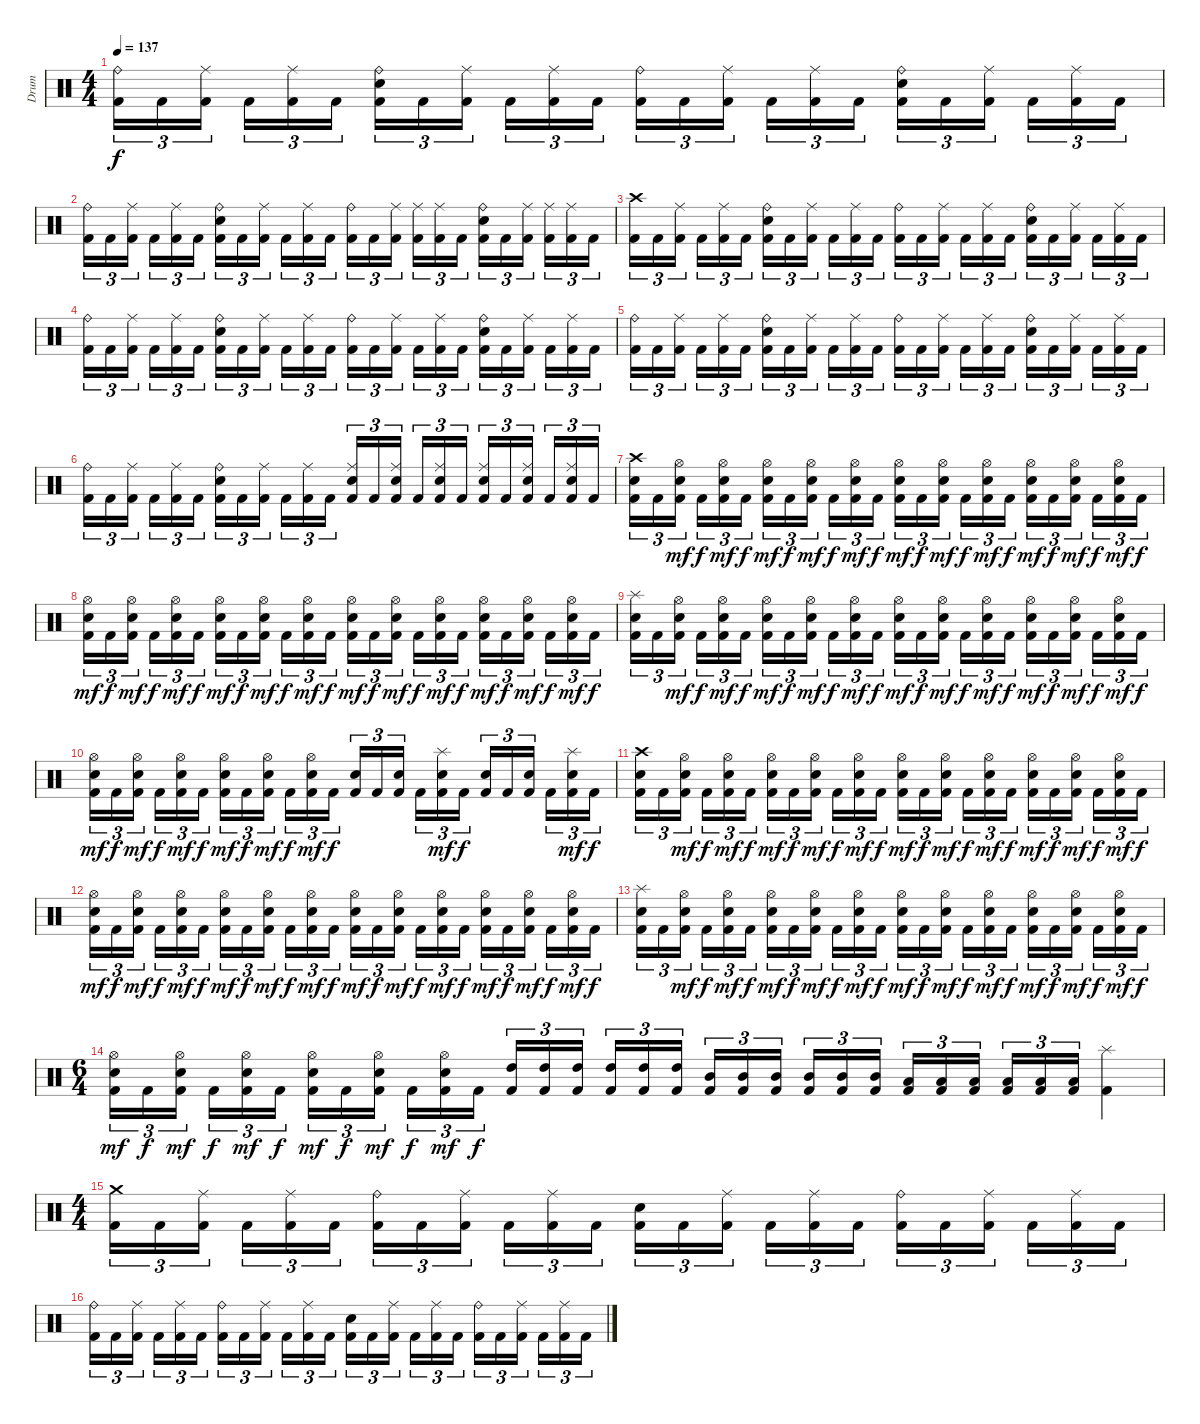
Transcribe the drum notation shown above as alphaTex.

\track ("Drum" "Drum") {instrument percussion}
\staff {score}
\articulation defaults
\ts (4 4)
\tempo 137
\clef neutral
\ks c
("Ride (bell)" "Kick (hit) 2").16{tu (3 2) dy f} "Kick (hit) 2".16{tu (3 2)} ("Ride (middle)" "Kick (hit) 2").16{tu (3 2) beam splitsecondary} "Kick (hit) 2".16{tu (3 2)} ("Ride (middle)" "Kick (hit) 2").16{tu (3 2)} "Kick (hit) 2".16{tu (3 2)} ("Ride (bell)" "Electric Snare (hit)" "Kick (hit) 2").16{tu (3 2)} "Kick (hit) 2".16{tu (3 2)} ("Ride (middle)" "Kick (hit) 2").16{tu (3 2) beam splitsecondary} "Kick (hit) 2".16{tu (3 2)} ("Ride (middle)" "Kick (hit) 2").16{tu (3 2)} "Kick (hit) 2".16{tu (3 2)} ("Ride (bell)" "Kick (hit) 2").16{tu (3 2)} "Kick (hit) 2".16{tu (3 2)} ("Ride (middle)" "Kick (hit) 2").16{tu (3 2) beam splitsecondary} "Kick (hit) 2".16{tu (3 2)} ("Ride (middle)" "Kick (hit) 2").16{tu (3 2)} "Kick (hit) 2".16{tu (3 2)} ("Ride (bell)" "Electric Snare (hit)" "Kick (hit) 2").16{tu (3 2)} "Kick (hit) 2".16{tu (3 2)} ("Ride (middle)" "Kick (hit) 2").16{tu (3 2) beam splitsecondary} "Kick (hit) 2".16{tu (3 2)} ("Ride (middle)" "Kick (hit) 2").16{tu (3 2)} "Kick (hit) 2".16{tu (3 2)} |
("Ride (bell)" "Kick (hit) 2").16{tu (3 2)} "Kick (hit) 2".16{tu (3 2)} ("Ride (middle)" "Kick (hit) 2").16{tu (3 2) beam splitsecondary} "Kick (hit) 2".16{tu (3 2)} ("Ride (middle)" "Kick (hit) 2").16{tu (3 2)} "Kick (hit) 2".16{tu (3 2)} ("Ride (bell)" "Electric Snare (hit)" "Kick (hit) 2").16{tu (3 2)} "Kick (hit) 2".16{tu (3 2)} ("Ride (middle)" "Kick (hit) 2").16{tu (3 2) beam splitsecondary} "Kick (hit) 2".16{tu (3 2)} ("Ride (middle)" "Kick (hit) 2").16{tu (3 2)} "Kick (hit) 2".16{tu (3 2)} ("Ride (bell)" "Kick (hit) 2").16{tu (3 2)} "Kick (hit) 2".16{tu (3 2)} ("Ride (middle)" "Kick (hit) 2").16{tu (3 2) beam splitsecondary} ("Ride (middle)" "Kick (hit) 2").16{tu (3 2)} ("Ride (middle)" "Kick (hit) 2").16{tu (3 2)} "Kick (hit) 2".16{tu (3 2)} ("Ride (bell)" "Electric Snare (hit)" "Kick (hit) 2").16{tu (3 2)} "Kick (hit) 2".16{tu (3 2)} ("Ride (middle)" "Kick (hit) 2").16{tu (3 2) beam splitsecondary} ("Ride (middle)" "Kick (hit) 2").16{tu (3 2)} ("Ride (middle)" "Kick (hit) 2").16{tu (3 2)} "Kick (hit) 2".16{tu (3 2)} |
("Crash high (hit)" "Kick (hit) 2").16{tu (3 2)} "Kick (hit) 2".16{tu (3 2)} ("Ride (middle)" "Kick (hit) 2").16{tu (3 2) beam splitsecondary} "Kick (hit) 2".16{tu (3 2)} ("Ride (middle)" "Kick (hit) 2").16{tu (3 2)} "Kick (hit) 2".16{tu (3 2)} ("Ride (bell)" "Electric Snare (hit)" "Kick (hit) 2").16{tu (3 2)} "Kick (hit) 2".16{tu (3 2)} ("Ride (middle)" "Kick (hit) 2").16{tu (3 2) beam splitsecondary} "Kick (hit) 2".16{tu (3 2)} ("Ride (middle)" "Kick (hit) 2").16{tu (3 2)} "Kick (hit) 2".16{tu (3 2)} ("Ride (bell)" "Kick (hit) 2").16{tu (3 2)} "Kick (hit) 2".16{tu (3 2)} ("Ride (middle)" "Kick (hit) 2").16{tu (3 2) beam splitsecondary} "Kick (hit) 2".16{tu (3 2)} ("Ride (middle)" "Kick (hit) 2").16{tu (3 2)} "Kick (hit) 2".16{tu (3 2)} ("Ride (bell)" "Electric Snare (hit)" "Kick (hit) 2").16{tu (3 2)} "Kick (hit) 2".16{tu (3 2)} ("Ride (middle)" "Kick (hit) 2").16{tu (3 2) beam splitsecondary} "Kick (hit) 2".16{tu (3 2)} ("Ride (middle)" "Kick (hit) 2").16{tu (3 2)} "Kick (hit) 2".16{tu (3 2)} |
("Ride (bell)" "Kick (hit) 2").16{tu (3 2)} "Kick (hit) 2".16{tu (3 2)} ("Ride (middle)" "Kick (hit) 2").16{tu (3 2) beam splitsecondary} "Kick (hit) 2".16{tu (3 2)} ("Ride (middle)" "Kick (hit) 2").16{tu (3 2)} "Kick (hit) 2".16{tu (3 2)} ("Ride (bell)" "Electric Snare (hit)" "Kick (hit) 2").16{tu (3 2)} "Kick (hit) 2".16{tu (3 2)} ("Ride (middle)" "Kick (hit) 2").16{tu (3 2) beam splitsecondary} "Kick (hit) 2".16{tu (3 2)} ("Ride (middle)" "Kick (hit) 2").16{tu (3 2)} "Kick (hit) 2".16{tu (3 2)} ("Ride (bell)" "Kick (hit) 2").16{tu (3 2)} "Kick (hit) 2".16{tu (3 2)} ("Ride (middle)" "Kick (hit) 2").16{tu (3 2) beam splitsecondary} "Kick (hit) 2".16{tu (3 2)} ("Ride (middle)" "Kick (hit) 2").16{tu (3 2)} "Kick (hit) 2".16{tu (3 2)} ("Ride (bell)" "Electric Snare (hit)" "Kick (hit) 2").16{tu (3 2)} "Kick (hit) 2".16{tu (3 2)} ("Ride (middle)" "Kick (hit) 2").16{tu (3 2) beam splitsecondary} "Kick (hit) 2".16{tu (3 2)} ("Ride (middle)" "Kick (hit) 2").16{tu (3 2)} "Kick (hit) 2".16{tu (3 2)} |
("Ride (bell)" "Kick (hit) 2").16{tu (3 2)} "Kick (hit) 2".16{tu (3 2)} ("Ride (middle)" "Kick (hit) 2").16{tu (3 2) beam splitsecondary} "Kick (hit) 2".16{tu (3 2)} ("Ride (middle)" "Kick (hit) 2").16{tu (3 2)} "Kick (hit) 2".16{tu (3 2)} ("Ride (bell)" "Electric Snare (hit)" "Kick (hit) 2").16{tu (3 2)} "Kick (hit) 2".16{tu (3 2)} ("Ride (middle)" "Kick (hit) 2").16{tu (3 2) beam splitsecondary} "Kick (hit) 2".16{tu (3 2)} ("Ride (middle)" "Kick (hit) 2").16{tu (3 2)} "Kick (hit) 2".16{tu (3 2)} ("Ride (bell)" "Kick (hit) 2").16{tu (3 2)} "Kick (hit) 2".16{tu (3 2)} ("Ride (middle)" "Kick (hit) 2").16{tu (3 2) beam splitsecondary} "Kick (hit) 2".16{tu (3 2)} ("Ride (middle)" "Kick (hit) 2").16{tu (3 2)} "Kick (hit) 2".16{tu (3 2)} ("Ride (bell)" "Electric Snare (hit)" "Kick (hit) 2").16{tu (3 2)} "Kick (hit) 2".16{tu (3 2)} ("Ride (middle)" "Kick (hit) 2").16{tu (3 2) beam splitsecondary} "Kick (hit) 2".16{tu (3 2)} ("Ride (middle)" "Kick (hit) 2").16{tu (3 2)} "Kick (hit) 2".16{tu (3 2)} |
("Ride (bell)" "Kick (hit) 2").16{tu (3 2)} "Kick (hit) 2".16{tu (3 2)} ("Ride (middle)" "Kick (hit) 2").16{tu (3 2) beam splitsecondary} "Kick (hit) 2".16{tu (3 2)} ("Ride (middle)" "Kick (hit) 2").16{tu (3 2)} "Kick (hit) 2".16{tu (3 2)} ("Ride (bell)" "Electric Snare (hit)" "Kick (hit) 2").16{tu (3 2)} "Kick (hit) 2".16{tu (3 2)} ("Ride (middle)" "Kick (hit) 2").16{tu (3 2) beam splitsecondary} "Kick (hit) 2".16{tu (3 2)} ("Ride (middle)" "Kick (hit) 2").16{tu (3 2)} "Kick (hit) 2".16{tu (3 2)} ("Ride (middle)" "Electric Snare (hit)" "Kick (hit) 2").16{tu (3 2)} "Kick (hit) 2".16{tu (3 2)} ("Ride (middle)" "Electric Snare (hit)" "Kick (hit) 2").16{tu (3 2) beam splitsecondary} "Kick (hit) 2".16{tu (3 2)} ("Ride (middle)" "Electric Snare (hit)" "Kick (hit) 2").16{tu (3 2)} "Kick (hit) 2".16{tu (3 2)} ("Ride (middle)" "Electric Snare (hit)" "Kick (hit) 2").16{tu (3 2)} "Kick (hit) 2".16{tu (3 2)} ("Ride (middle)" "Electric Snare (hit)" "Kick (hit) 2").16{tu (3 2) beam splitsecondary} "Kick (hit) 2".16{tu (3 2)} ("Ride (middle)" "Electric Snare (hit)" "Kick (hit) 2").16{tu (3 2)} "Kick (hit) 2".16{tu (3 2)} |
("Crash high (hit)" "Electric Snare (hit)" "Kick (hit) 2").16{tu (3 2)} "Kick (hit) 2".16{tu (3 2)} ("Hi-Hat (open)" "Electric Snare (hit)" "Kick (hit) 2").16{tu (3 2) dy mf beam splitsecondary} "Kick (hit) 2".16{tu (3 2) dy f} ("Hi-Hat (open)" "Electric Snare (hit)" "Kick (hit) 2").16{tu (3 2) dy mf} "Kick (hit) 2".16{tu (3 2) dy f} ("Hi-Hat (open)" "Electric Snare (hit)" "Kick (hit) 2").16{tu (3 2) dy mf} "Kick (hit) 2".16{tu (3 2) dy f} ("Hi-Hat (open)" "Electric Snare (hit)" "Kick (hit) 2").16{tu (3 2) dy mf beam splitsecondary} "Kick (hit) 2".16{tu (3 2) dy f} ("Hi-Hat (open)" "Electric Snare (hit)" "Kick (hit) 2").16{tu (3 2) dy mf} "Kick (hit) 2".16{tu (3 2) dy f} ("Hi-Hat (open)" "Electric Snare (hit)" "Kick (hit) 2").16{tu (3 2) dy mf} "Kick (hit) 2".16{tu (3 2) dy f} ("Hi-Hat (open)" "Electric Snare (hit)" "Kick (hit) 2").16{tu (3 2) dy mf beam splitsecondary} "Kick (hit) 2".16{tu (3 2) dy f} ("Hi-Hat (open)" "Electric Snare (hit)" "Kick (hit) 2").16{tu (3 2) dy mf} "Kick (hit) 2".16{tu (3 2) dy f} ("Hi-Hat (open)" "Electric Snare (hit)" "Kick (hit) 2").16{tu (3 2) dy mf} "Kick (hit) 2".16{tu (3 2) dy f} ("Hi-Hat (open)" "Electric Snare (hit)" "Kick (hit) 2").16{tu (3 2) dy mf beam splitsecondary} "Kick (hit) 2".16{tu (3 2) dy f} ("Hi-Hat (open)" "Electric Snare (hit)" "Kick (hit) 2").16{tu (3 2) dy mf} "Kick (hit) 2".16{tu (3 2) dy f} |
("Hi-Hat (open)" "Electric Snare (hit)" "Kick (hit) 2").16{tu (3 2) dy mf} "Kick (hit) 2".16{tu (3 2) dy f} ("Hi-Hat (open)" "Electric Snare (hit)" "Kick (hit) 2").16{tu (3 2) dy mf beam splitsecondary} "Kick (hit) 2".16{tu (3 2) dy f} ("Hi-Hat (open)" "Electric Snare (hit)" "Kick (hit) 2").16{tu (3 2) dy mf} "Kick (hit) 2".16{tu (3 2) dy f} ("Hi-Hat (open)" "Electric Snare (hit)" "Kick (hit) 2").16{tu (3 2) dy mf} "Kick (hit) 2".16{tu (3 2) dy f} ("Hi-Hat (open)" "Electric Snare (hit)" "Kick (hit) 2").16{tu (3 2) dy mf beam splitsecondary} "Kick (hit) 2".16{tu (3 2) dy f} ("Hi-Hat (open)" "Electric Snare (hit)" "Kick (hit) 2").16{tu (3 2) dy mf} "Kick (hit) 2".16{tu (3 2) dy f} ("Hi-Hat (open)" "Electric Snare (hit)" "Kick (hit) 2").16{tu (3 2) dy mf} "Kick (hit) 2".16{tu (3 2) dy f} ("Hi-Hat (open)" "Electric Snare (hit)" "Kick (hit) 2").16{tu (3 2) dy mf beam splitsecondary} "Kick (hit) 2".16{tu (3 2) dy f} ("Hi-Hat (open)" "Electric Snare (hit)" "Kick (hit) 2").16{tu (3 2) dy mf} "Kick (hit) 2".16{tu (3 2) dy f} ("Hi-Hat (open)" "Electric Snare (hit)" "Kick (hit) 2").16{tu (3 2) dy mf} "Kick (hit) 2".16{tu (3 2) dy f} ("Hi-Hat (open)" "Electric Snare (hit)" "Kick (hit) 2").16{tu (3 2) dy mf beam splitsecondary} "Kick (hit) 2".16{tu (3 2) dy f} ("Hi-Hat (open)" "Electric Snare (hit)" "Kick (hit) 2").16{tu (3 2) dy mf} "Kick (hit) 2".16{tu (3 2) dy f} |
("Splash (hit)" "Electric Snare (hit)" "Kick (hit) 2").16{tu (3 2)} "Kick (hit) 2".16{tu (3 2)} ("Hi-Hat (open)" "Electric Snare (hit)" "Kick (hit) 2").16{tu (3 2) dy mf beam splitsecondary} "Kick (hit) 2".16{tu (3 2) dy f} ("Hi-Hat (open)" "Electric Snare (hit)" "Kick (hit) 2").16{tu (3 2) dy mf} "Kick (hit) 2".16{tu (3 2) dy f} ("Hi-Hat (open)" "Electric Snare (hit)" "Kick (hit) 2").16{tu (3 2) dy mf} "Kick (hit) 2".16{tu (3 2) dy f} ("Hi-Hat (open)" "Electric Snare (hit)" "Kick (hit) 2").16{tu (3 2) dy mf beam splitsecondary} "Kick (hit) 2".16{tu (3 2) dy f} ("Hi-Hat (open)" "Electric Snare (hit)" "Kick (hit) 2").16{tu (3 2) dy mf} "Kick (hit) 2".16{tu (3 2) dy f} ("Hi-Hat (open)" "Electric Snare (hit)" "Kick (hit) 2").16{tu (3 2) dy mf} "Kick (hit) 2".16{tu (3 2) dy f} ("Hi-Hat (open)" "Electric Snare (hit)" "Kick (hit) 2").16{tu (3 2) dy mf beam splitsecondary} "Kick (hit) 2".16{tu (3 2) dy f} ("Hi-Hat (open)" "Electric Snare (hit)" "Kick (hit) 2").16{tu (3 2) dy mf} "Kick (hit) 2".16{tu (3 2) dy f} ("Hi-Hat (open)" "Electric Snare (hit)" "Kick (hit) 2").16{tu (3 2) dy mf} "Kick (hit) 2".16{tu (3 2) dy f} ("Hi-Hat (open)" "Electric Snare (hit)" "Kick (hit) 2").16{tu (3 2) dy mf beam splitsecondary} "Kick (hit) 2".16{tu (3 2) dy f} ("Hi-Hat (open)" "Electric Snare (hit)" "Kick (hit) 2").16{tu (3 2) dy mf} "Kick (hit) 2".16{tu (3 2) dy f} |
("Hi-Hat (open)" "Electric Snare (hit)" "Kick (hit) 2").16{tu (3 2) dy mf} "Kick (hit) 2".16{tu (3 2) dy f} ("Hi-Hat (open)" "Electric Snare (hit)" "Kick (hit) 2").16{tu (3 2) dy mf beam splitsecondary} "Kick (hit) 2".16{tu (3 2) dy f} ("Hi-Hat (open)" "Electric Snare (hit)" "Kick (hit) 2").16{tu (3 2) dy mf} "Kick (hit) 2".16{tu (3 2) dy f} ("Hi-Hat (open)" "Electric Snare (hit)" "Kick (hit) 2").16{tu (3 2) dy mf} "Kick (hit) 2".16{tu (3 2) dy f} ("Hi-Hat (open)" "Electric Snare (hit)" "Kick (hit) 2").16{tu (3 2) dy mf beam splitsecondary} "Kick (hit) 2".16{tu (3 2) dy f} ("Hi-Hat (open)" "Electric Snare (hit)" "Kick (hit) 2").16{tu (3 2) dy mf} "Kick (hit) 2".16{tu (3 2) dy f} ("Electric Snare (hit)" "Kick (hit) 2").16{tu (3 2)} "Kick (hit) 2".16{tu (3 2)} ("Electric Snare (hit)" "Kick (hit) 2").16{tu (3 2) beam splitsecondary} "Kick (hit) 2".16{tu (3 2)} ("Splash (hit)" "Electric Snare (hit)" "Kick (hit) 2").16{tu (3 2) dy mf} "Kick (hit) 2".16{tu (3 2) dy f} ("Electric Snare (hit)" "Kick (hit) 2").16{tu (3 2)} "Kick (hit) 2".16{tu (3 2)} ("Electric Snare (hit)" "Kick (hit) 2").16{tu (3 2) beam splitsecondary} "Kick (hit) 2".16{tu (3 2)} ("Splash (hit)" "Electric Snare (hit)" "Kick (hit) 2").16{tu (3 2) dy mf} "Kick (hit) 2".16{tu (3 2) dy f} |
("Crash high (hit)" "Electric Snare (hit)" "Kick (hit) 2").16{tu (3 2)} "Kick (hit) 2".16{tu (3 2)} ("Hi-Hat (open)" "Electric Snare (hit)" "Kick (hit) 2").16{tu (3 2) dy mf beam splitsecondary} "Kick (hit) 2".16{tu (3 2) dy f} ("Hi-Hat (open)" "Electric Snare (hit)" "Kick (hit) 2").16{tu (3 2) dy mf} "Kick (hit) 2".16{tu (3 2) dy f} ("Hi-Hat (open)" "Electric Snare (hit)" "Kick (hit) 2").16{tu (3 2) dy mf} "Kick (hit) 2".16{tu (3 2) dy f} ("Hi-Hat (open)" "Electric Snare (hit)" "Kick (hit) 2").16{tu (3 2) dy mf beam splitsecondary} "Kick (hit) 2".16{tu (3 2) dy f} ("Hi-Hat (open)" "Electric Snare (hit)" "Kick (hit) 2").16{tu (3 2) dy mf} "Kick (hit) 2".16{tu (3 2) dy f} ("Hi-Hat (open)" "Electric Snare (hit)" "Kick (hit) 2").16{tu (3 2) dy mf} "Kick (hit) 2".16{tu (3 2) dy f} ("Hi-Hat (open)" "Electric Snare (hit)" "Kick (hit) 2").16{tu (3 2) dy mf beam splitsecondary} "Kick (hit) 2".16{tu (3 2) dy f} ("Hi-Hat (open)" "Electric Snare (hit)" "Kick (hit) 2").16{tu (3 2) dy mf} "Kick (hit) 2".16{tu (3 2) dy f} ("Hi-Hat (open)" "Electric Snare (hit)" "Kick (hit) 2").16{tu (3 2) dy mf} "Kick (hit) 2".16{tu (3 2) dy f} ("Hi-Hat (open)" "Electric Snare (hit)" "Kick (hit) 2").16{tu (3 2) dy mf beam splitsecondary} "Kick (hit) 2".16{tu (3 2) dy f} ("Hi-Hat (open)" "Electric Snare (hit)" "Kick (hit) 2").16{tu (3 2) dy mf} "Kick (hit) 2".16{tu (3 2) dy f} |
("Hi-Hat (open)" "Electric Snare (hit)" "Kick (hit) 2").16{tu (3 2) dy mf} "Kick (hit) 2".16{tu (3 2) dy f} ("Hi-Hat (open)" "Electric Snare (hit)" "Kick (hit) 2").16{tu (3 2) dy mf beam splitsecondary} "Kick (hit) 2".16{tu (3 2) dy f} ("Hi-Hat (open)" "Electric Snare (hit)" "Kick (hit) 2").16{tu (3 2) dy mf} "Kick (hit) 2".16{tu (3 2) dy f} ("Hi-Hat (open)" "Electric Snare (hit)" "Kick (hit) 2").16{tu (3 2) dy mf} "Kick (hit) 2".16{tu (3 2) dy f} ("Hi-Hat (open)" "Electric Snare (hit)" "Kick (hit) 2").16{tu (3 2) dy mf beam splitsecondary} "Kick (hit) 2".16{tu (3 2) dy f} ("Hi-Hat (open)" "Electric Snare (hit)" "Kick (hit) 2").16{tu (3 2) dy mf} "Kick (hit) 2".16{tu (3 2) dy f} ("Hi-Hat (open)" "Electric Snare (hit)" "Kick (hit) 2").16{tu (3 2) dy mf} "Kick (hit) 2".16{tu (3 2) dy f} ("Hi-Hat (open)" "Electric Snare (hit)" "Kick (hit) 2").16{tu (3 2) dy mf beam splitsecondary} "Kick (hit) 2".16{tu (3 2) dy f} ("Hi-Hat (open)" "Electric Snare (hit)" "Kick (hit) 2").16{tu (3 2) dy mf} "Kick (hit) 2".16{tu (3 2) dy f} ("Hi-Hat (open)" "Electric Snare (hit)" "Kick (hit) 2").16{tu (3 2) dy mf} "Kick (hit) 2".16{tu (3 2) dy f} ("Hi-Hat (open)" "Electric Snare (hit)" "Kick (hit) 2").16{tu (3 2) dy mf beam splitsecondary} "Kick (hit) 2".16{tu (3 2) dy f} ("Hi-Hat (open)" "Electric Snare (hit)" "Kick (hit) 2").16{tu (3 2) dy mf} "Kick (hit) 2".16{tu (3 2) dy f} |
("Splash (hit)" "Electric Snare (hit)" "Kick (hit) 2").16{tu (3 2)} "Kick (hit) 2".16{tu (3 2)} ("Hi-Hat (open)" "Electric Snare (hit)" "Kick (hit) 2").16{tu (3 2) dy mf beam splitsecondary} "Kick (hit) 2".16{tu (3 2) dy f} ("Hi-Hat (open)" "Electric Snare (hit)" "Kick (hit) 2").16{tu (3 2) dy mf} "Kick (hit) 2".16{tu (3 2) dy f} ("Hi-Hat (open)" "Electric Snare (hit)" "Kick (hit) 2").16{tu (3 2) dy mf} "Kick (hit) 2".16{tu (3 2) dy f} ("Hi-Hat (open)" "Electric Snare (hit)" "Kick (hit) 2").16{tu (3 2) dy mf beam splitsecondary} "Kick (hit) 2".16{tu (3 2) dy f} ("Hi-Hat (open)" "Electric Snare (hit)" "Kick (hit) 2").16{tu (3 2) dy mf} "Kick (hit) 2".16{tu (3 2) dy f} ("Hi-Hat (open)" "Electric Snare (hit)" "Kick (hit) 2").16{tu (3 2) dy mf} "Kick (hit) 2".16{tu (3 2) dy f} ("Hi-Hat (open)" "Electric Snare (hit)" "Kick (hit) 2").16{tu (3 2) dy mf beam splitsecondary} "Kick (hit) 2".16{tu (3 2) dy f} ("Hi-Hat (open)" "Electric Snare (hit)" "Kick (hit) 2").16{tu (3 2) dy mf} "Kick (hit) 2".16{tu (3 2) dy f} ("Hi-Hat (open)" "Electric Snare (hit)" "Kick (hit) 2").16{tu (3 2) dy mf} "Kick (hit) 2".16{tu (3 2) dy f} ("Hi-Hat (open)" "Electric Snare (hit)" "Kick (hit) 2").16{tu (3 2) dy mf beam splitsecondary} "Kick (hit) 2".16{tu (3 2) dy f} ("Hi-Hat (open)" "Electric Snare (hit)" "Kick (hit) 2").16{tu (3 2) dy mf} "Kick (hit) 2".16{tu (3 2) dy f} |
\ts (6 4)
("Hi-Hat (open)" "Electric Snare (hit)" "Kick (hit) 2").16{tu (3 2) dy mf} "Kick (hit) 2".16{tu (3 2) dy f} ("Hi-Hat (open)" "Electric Snare (hit)" "Kick (hit) 2").16{tu (3 2) dy mf beam splitsecondary} "Kick (hit) 2".16{tu (3 2) dy f} ("Hi-Hat (open)" "Electric Snare (hit)" "Kick (hit) 2").16{tu (3 2) dy mf} "Kick (hit) 2".16{tu (3 2) dy f beam splitsecondary} ("Hi-Hat (open)" "Electric Snare (hit)" "Kick (hit) 2").16{tu (3 2) dy mf} "Kick (hit) 2".16{tu (3 2) dy f} ("Hi-Hat (open)" "Electric Snare (hit)" "Kick (hit) 2").16{tu (3 2) dy mf beam splitsecondary} "Kick (hit) 2".16{tu (3 2) dy f} ("Hi-Hat (open)" "Electric Snare (hit)" "Kick (hit) 2").16{tu (3 2) dy mf} "Kick (hit) 2".16{tu (3 2) dy f beam splitsecondary} ("High Tom (hit)" "Kick (hit) 2").16{tu (3 2)} ("High Tom (hit)" "Kick (hit) 2").16{tu (3 2)} ("High Tom (hit)" "Kick (hit) 2").16{tu (3 2) beam splitsecondary} ("High Tom (hit)" "Kick (hit) 2").16{tu (3 2)} ("High Tom (hit)" "Kick (hit) 2").16{tu (3 2)} ("High Tom (hit)" "Kick (hit) 2").16{tu (3 2)} ("Mid Tom (hit)" "Kick (hit) 2").16{tu (3 2)} ("Mid Tom (hit)" "Kick (hit) 2").16{tu (3 2)} ("Mid Tom (hit)" "Kick (hit) 2").16{tu (3 2) beam splitsecondary} ("Mid Tom (hit)" "Kick (hit) 2").16{tu (3 2)} ("Mid Tom (hit)" "Kick (hit) 2").16{tu (3 2)} ("Mid Tom (hit)" "Kick (hit) 2").16{tu (3 2) beam splitsecondary} ("Low Tom (hit)" "Kick (hit) 2").16{tu (3 2)} ("Low Tom (hit)" "Kick (hit) 2").16{tu (3 2)} ("Low Tom (hit)" "Kick (hit) 2").16{tu (3 2) beam splitsecondary} ("Low Tom (hit)" "Kick (hit) 2").16{tu (3 2)} ("Low Tom (hit)" "Kick (hit) 2").16{tu (3 2)} ("Low Tom (hit)" "Kick (hit) 2").16{tu (3 2)} ("Splash (hit)" "Kick (hit) 2").4 |
\ts (4 4)
("Crash medium (hit)" "Kick (hit) 2").16{tu (3 2)} "Kick (hit) 2".16{tu (3 2)} ("Ride (middle)" "Kick (hit) 2").16{tu (3 2) beam splitsecondary} "Kick (hit) 2".16{tu (3 2)} ("Ride (middle)" "Kick (hit) 2").16{tu (3 2)} "Kick (hit) 2".16{tu (3 2)} ("Ride (bell)" "Kick (hit) 2").16{tu (3 2)} "Kick (hit) 2".16{tu (3 2)} ("Ride (middle)" "Kick (hit) 2").16{tu (3 2) beam splitsecondary} "Kick (hit) 2".16{tu (3 2)} ("Ride (middle)" "Kick (hit) 2").16{tu (3 2)} "Kick (hit) 2".16{tu (3 2)} ("Electric Snare (hit)" "Kick (hit) 2").16{tu (3 2)} "Kick (hit) 2".16{tu (3 2)} ("Ride (middle)" "Kick (hit) 2").16{tu (3 2) beam splitsecondary} "Kick (hit) 2".16{tu (3 2)} ("Ride (middle)" "Kick (hit) 2").16{tu (3 2)} "Kick (hit) 2".16{tu (3 2)} ("Ride (bell)" "Kick (hit) 2").16{tu (3 2)} "Kick (hit) 2".16{tu (3 2)} ("Ride (middle)" "Kick (hit) 2").16{tu (3 2) beam splitsecondary} "Kick (hit) 2".16{tu (3 2)} ("Ride (middle)" "Kick (hit) 2").16{tu (3 2)} "Kick (hit) 2".16{tu (3 2)} |
("Ride (bell)" "Kick (hit) 2").16{tu (3 2)} "Kick (hit) 2".16{tu (3 2)} ("Ride (middle)" "Kick (hit) 2").16{tu (3 2) beam splitsecondary} "Kick (hit) 2".16{tu (3 2)} ("Ride (middle)" "Kick (hit) 2").16{tu (3 2)} "Kick (hit) 2".16{tu (3 2)} ("Ride (bell)" "Kick (hit) 2").16{tu (3 2)} "Kick (hit) 2".16{tu (3 2)} ("Ride (middle)" "Kick (hit) 2").16{tu (3 2) beam splitsecondary} "Kick (hit) 2".16{tu (3 2)} ("Ride (middle)" "Kick (hit) 2").16{tu (3 2)} "Kick (hit) 2".16{tu (3 2)} ("Electric Snare (hit)" "Kick (hit) 2").16{tu (3 2)} "Kick (hit) 2".16{tu (3 2)} ("Ride (middle)" "Kick (hit) 2").16{tu (3 2) beam splitsecondary} "Kick (hit) 2".16{tu (3 2)} ("Ride (middle)" "Kick (hit) 2").16{tu (3 2)} "Kick (hit) 2".16{tu (3 2)} ("Ride (bell)" "Kick (hit) 2").16{tu (3 2)} "Kick (hit) 2".16{tu (3 2)} ("Ride (middle)" "Kick (hit) 2").16{tu (3 2) beam splitsecondary} "Kick (hit) 2".16{tu (3 2)} ("Ride (middle)" "Kick (hit) 2").16{tu (3 2)} "Kick (hit) 2".16{tu (3 2)}
